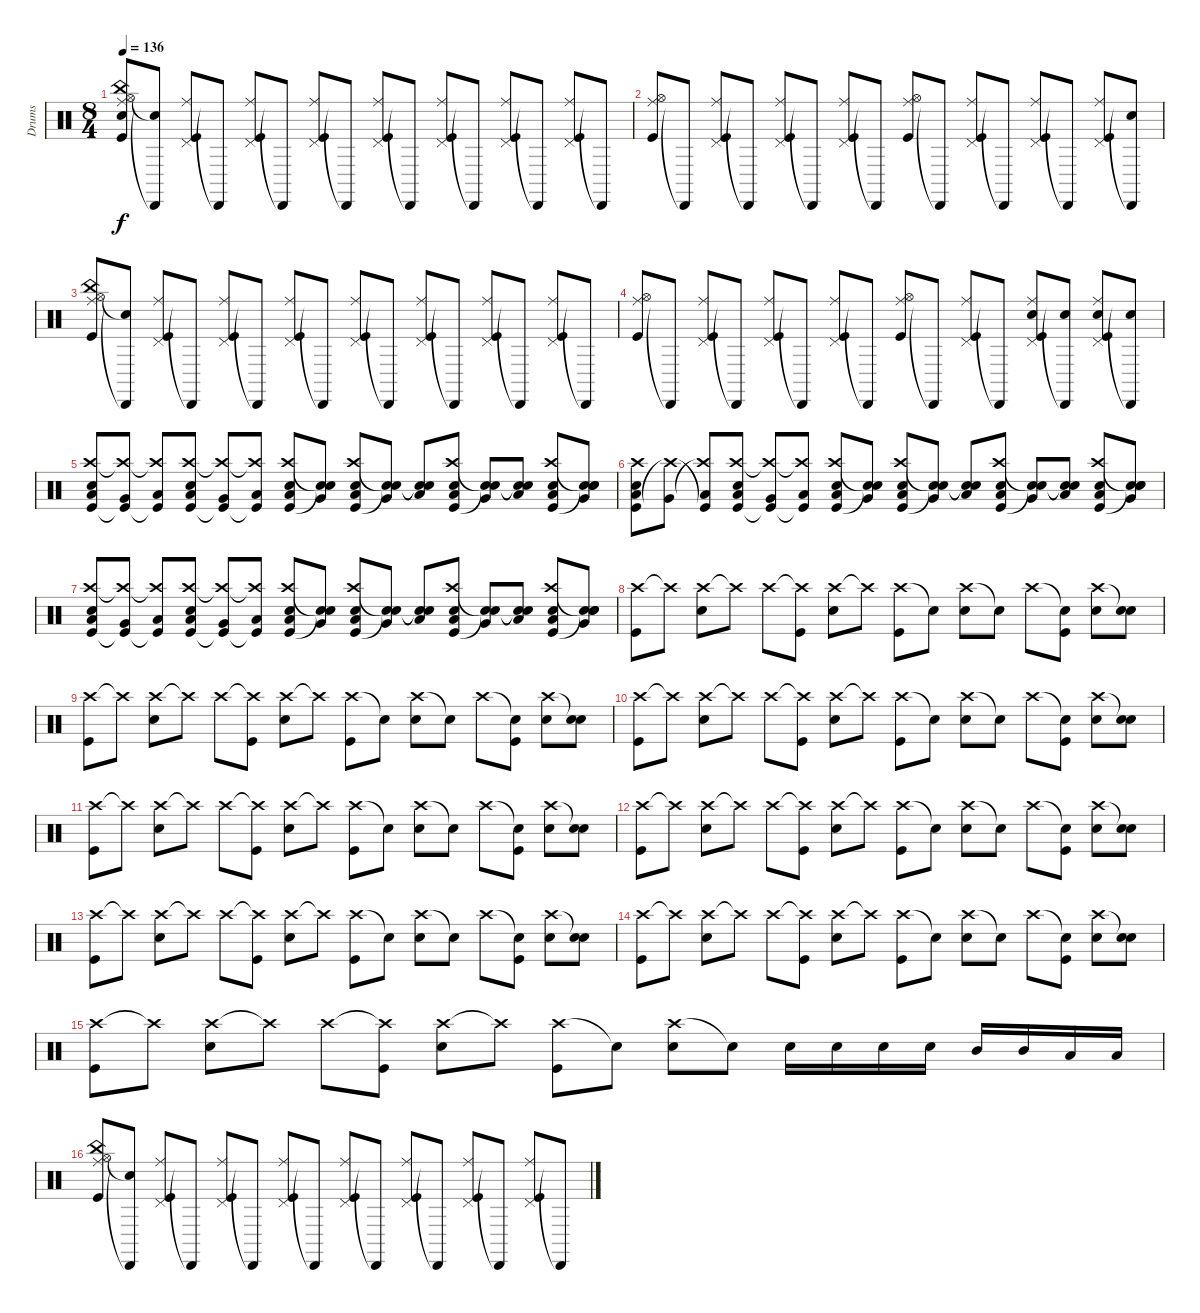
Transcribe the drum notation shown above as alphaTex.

\track ("Drums" "Drums") {instrument percussion}
\staff {score}
\articulation defaults
\ts (8 4)
\tempo 136
\clef neutral
\ks c
("China (hit)" "Ride (middle)" "Hi-Hat (open)" "Kick (hit)" "Snare (hit) 2").8{dy f} ("Snare (hit)"{t} "Cabasa (hit)"{t}).8 ("Ride (middle)" "Pedal Hi-Hat (hit)" "Kick (hit)").8 "Cabasa (hit)"{t}.8 ("Ride (middle)" "Pedal Hi-Hat (hit)" "Kick (hit)").8 "Cabasa (hit)"{t}.8 ("Ride (middle)" "Pedal Hi-Hat (hit)" "Kick (hit)").8 "Cabasa (hit)"{t}.8 ("Ride (middle)" "Pedal Hi-Hat (hit)" "Kick (hit)").8 "Cabasa (hit)"{t}.8 ("Ride (middle)" "Pedal Hi-Hat (hit)" "Kick (hit)").8 "Cabasa (hit)"{t}.8 ("Ride (middle)" "Pedal Hi-Hat (hit)" "Kick (hit)").8 "Cabasa (hit)"{t}.8 ("Ride (middle)" "Pedal Hi-Hat (hit)" "Kick (hit)").8 "Cabasa (hit)"{t}.8 |
("Ride (middle)" "Hi-Hat (open)" "Kick (hit)").8 "Cabasa (hit)"{t}.8 ("Ride (middle)" "Pedal Hi-Hat (hit)" "Kick (hit)").8 "Cabasa (hit)"{t}.8 ("Ride (middle)" "Pedal Hi-Hat (hit)" "Kick (hit)").8 "Cabasa (hit)"{t}.8 ("Ride (middle)" "Pedal Hi-Hat (hit)" "Kick (hit)").8 "Cabasa (hit)"{t}.8 ("Ride (middle)" "Hi-Hat (open)" "Kick (hit)").8 "Cabasa (hit)"{t}.8 ("Ride (middle)" "Pedal Hi-Hat (hit)" "Kick (hit)").8 "Cabasa (hit)"{t}.8 ("Ride (middle)" "Pedal Hi-Hat (hit)" "Kick (hit)").8 "Cabasa (hit)"{t}.8 ("Ride (middle)" "Pedal Hi-Hat (hit)" "Kick (hit)").8 ("Cabasa (hit)"{t} "Snare (hit) 2").8 |
("China (hit)" "Ride (middle)" "Hi-Hat (open)" "Kick (hit)").8 ("Snare (hit)"{t} "Cabasa (hit)"{t}).8 ("Ride (middle)" "Pedal Hi-Hat (hit)" "Kick (hit)").8 "Cabasa (hit)"{t}.8 ("Ride (middle)" "Pedal Hi-Hat (hit)" "Kick (hit)").8 "Cabasa (hit)"{t}.8 ("Ride (middle)" "Pedal Hi-Hat (hit)" "Kick (hit)").8 "Cabasa (hit)"{t}.8 ("Ride (middle)" "Pedal Hi-Hat (hit)" "Kick (hit)").8 "Cabasa (hit)"{t}.8 ("Ride (middle)" "Pedal Hi-Hat (hit)" "Kick (hit)").8 "Cabasa (hit)"{t}.8 ("Ride (middle)" "Pedal Hi-Hat (hit)" "Kick (hit)").8 "Cabasa (hit)"{t}.8 ("Ride (middle)" "Pedal Hi-Hat (hit)" "Kick (hit)").8 "Cabasa (hit)"{t}.8 |
("Ride (middle)" "Hi-Hat (open)" "Kick (hit)").8 "Cabasa (hit)"{t}.8 ("Ride (middle)" "Pedal Hi-Hat (hit)" "Kick (hit)").8 "Cabasa (hit)"{t}.8 ("Ride (middle)" "Pedal Hi-Hat (hit)" "Kick (hit)").8 "Cabasa (hit)"{t}.8 ("Ride (middle)" "Pedal Hi-Hat (hit)" "Kick (hit)").8 "Cabasa (hit)"{t}.8 ("Ride (middle)" "Hi-Hat (open)" "Kick (hit)").8 "Cabasa (hit)"{t}.8 ("Ride (middle)" "Pedal Hi-Hat (hit)" "Kick (hit)").8 "Cabasa (hit)"{t}.8 ("Ride (middle)" "Pedal Hi-Hat (hit)" "Kick (hit)" "Snare (hit) 2").8 ("Cabasa (hit)"{t} "Snare (hit) 2").8 ("Ride (middle)" "Pedal Hi-Hat (hit)" "Kick (hit)" "Snare (hit) 2").8 ("Cabasa (hit)"{t} "Snare (hit) 2").8 |
("Kick (hit)" "Crash high (hit)" "Low Tom (hit)" "Snare (hit) 2").8 ("Kick (hit)"{t} "Crash high (hit)"{t} "Very Low Tom (hit)").8 ("Kick (hit)"{t} "Crash high (hit)"{t} "Low Floor Tom (hit)").8 ("Kick (hit)" "Crash high (hit)" "Low Tom (hit)" "Snare (hit) 2").8 ("Kick (hit)"{t} "Crash high (hit)"{t} "Very Low Tom (hit)").8 ("Kick (hit)"{t} "Crash high (hit)"{t} "Low Floor Tom (hit)").8 ("Kick (hit)" "Crash high (hit)" "Low Tom (hit)" "Snare (hit) 2").8 ("Snare (hit)"{t} "Snare (hit)"{t} "Very Low Tom (hit)").8 ("Kick (hit)" "Crash high (hit)" "Low Tom (hit)" "Snare (hit) 2").8 ("Snare (hit)"{t} "Snare (hit)"{t} "Very Low Tom (hit)").8 ("Snare (hit)"{t} "Snare (hit)"{t} "Low Floor Tom (hit)").8 ("Kick (hit)" "Crash high (hit)" "Low Tom (hit)" "Snare (hit) 2").8 ("Snare (hit)"{t} "Snare (hit)"{t} "Very Low Tom (hit)").8 ("Snare (hit)"{t} "Snare (hit)"{t} "Low Floor Tom (hit)").8 ("Kick (hit)" "Crash high (hit)" "Low Tom (hit)" "Snare (hit) 2").8 ("Snare (hit)"{t} "Snare (hit)"{t} "Very Low Tom (hit)" "Snare (hit) 2").8 |
("Kick (hit)" "Crash high (hit)" "Low Tom (hit)" "Snare (hit) 2").8 ("Crash high (hit)"{t} "Very Low Tom (hit)").8 ("Kick (hit)"{t} "Crash high (hit)"{t} "Low Floor Tom (hit)").8 ("Kick (hit)" "Crash high (hit)" "Low Tom (hit)" "Snare (hit) 2").8 ("Kick (hit)"{t} "Crash high (hit)"{t} "Very Low Tom (hit)").8 ("Kick (hit)"{t} "Crash high (hit)"{t} "Low Floor Tom (hit)").8 ("Kick (hit)" "Crash high (hit)" "Low Tom (hit)" "Snare (hit) 2").8 ("Snare (hit)"{t} "Snare (hit)"{t} "Very Low Tom (hit)").8 ("Kick (hit)" "Crash high (hit)" "Low Tom (hit)" "Snare (hit) 2").8 ("Snare (hit)"{t} "Snare (hit)"{t} "Very Low Tom (hit)").8 ("Snare (hit)"{t} "Snare (hit)"{t} "Low Floor Tom (hit)").8 ("Kick (hit)" "Crash high (hit)" "Low Tom (hit)" "Snare (hit) 2").8 ("Snare (hit)"{t} "Snare (hit)"{t} "Very Low Tom (hit)").8 ("Snare (hit)"{t} "Snare (hit)"{t} "Low Floor Tom (hit)").8 ("Kick (hit)" "Crash high (hit)" "Low Tom (hit)" "Snare (hit) 2").8 ("Snare (hit)"{t} "Snare (hit)"{t} "Very Low Tom (hit)" "Snare (hit) 2").8 |
("Kick (hit)" "Crash high (hit)" "Low Tom (hit)" "Snare (hit) 2").8 ("Kick (hit)"{t} "Crash high (hit)"{t} "Very Low Tom (hit)").8 ("Kick (hit)"{t} "Crash high (hit)"{t} "Low Floor Tom (hit)").8 ("Kick (hit)" "Crash high (hit)" "Low Tom (hit)" "Snare (hit) 2").8 ("Kick (hit)"{t} "Crash high (hit)"{t} "Very Low Tom (hit)").8 ("Kick (hit)"{t} "Crash high (hit)"{t} "Low Floor Tom (hit)").8 ("Kick (hit)" "Crash high (hit)" "Low Tom (hit)" "Snare (hit) 2").8 ("Snare (hit)"{t} "Snare (hit)"{t} "Very Low Tom (hit)").8 ("Kick (hit)" "Crash high (hit)" "Low Tom (hit)" "Snare (hit) 2").8 ("Snare (hit)"{t} "Snare (hit)"{t} "Very Low Tom (hit)").8 ("Snare (hit)"{t} "Snare (hit)"{t} "Low Floor Tom (hit)").8 ("Kick (hit)" "Crash high (hit)" "Low Tom (hit)" "Snare (hit) 2").8 ("Snare (hit)"{t} "Snare (hit)"{t} "Very Low Tom (hit)").8 ("Snare (hit)"{t} "Snare (hit)"{t} "Low Floor Tom (hit)").8 ("Kick (hit)" "Crash high (hit)" "Low Tom (hit)" "Snare (hit) 2").8 ("Snare (hit)"{t} "Snare (hit)"{t} "Very Low Tom (hit)" "Snare (hit) 2").8 |
("Crash high (hit)" "Kick (hit)").8 "Crash high (hit)"{t}.8 ("Crash high (hit)" "Snare (hit) 2").8 "Crash high (hit)"{t}.8 "Crash high (hit)".8 ("Crash high (hit)"{t} "Kick (hit)").8 ("Crash high (hit)" "Snare (hit) 2").8 "Crash high (hit)"{t}.8 ("Crash high (hit)" "Kick (hit)").8 "Snare (hit)"{t}.8 ("Crash high (hit)" "Snare (hit) 2").8 "Snare (hit)"{t}.8 "Crash high (hit)".8 ("Snare (hit)"{t} "Kick (hit)").8 ("Crash high (hit)" "Snare (hit) 2").8 ("Snare (hit)"{t} "Snare (hit) 2").8 |
("Crash high (hit)" "Kick (hit)").8 "Crash high (hit)"{t}.8 ("Crash high (hit)" "Snare (hit) 2").8 "Crash high (hit)"{t}.8 "Crash high (hit)".8 ("Crash high (hit)"{t} "Kick (hit)").8 ("Crash high (hit)" "Snare (hit) 2").8 "Crash high (hit)"{t}.8 ("Crash high (hit)" "Kick (hit)").8 "Snare (hit)"{t}.8 ("Crash high (hit)" "Snare (hit) 2").8 "Snare (hit)"{t}.8 "Crash high (hit)".8 ("Snare (hit)"{t} "Kick (hit)").8 ("Crash high (hit)" "Snare (hit) 2").8 ("Snare (hit)"{t} "Snare (hit) 2").8 |
("Crash high (hit)" "Kick (hit)").8 "Crash high (hit)"{t}.8 ("Crash high (hit)" "Snare (hit) 2").8 "Crash high (hit)"{t}.8 "Crash high (hit)".8 ("Crash high (hit)"{t} "Kick (hit)").8 ("Crash high (hit)" "Snare (hit) 2").8 "Crash high (hit)"{t}.8 ("Crash high (hit)" "Kick (hit)").8 "Snare (hit)"{t}.8 ("Crash high (hit)" "Snare (hit) 2").8 "Snare (hit)"{t}.8 "Crash high (hit)".8 ("Snare (hit)"{t} "Kick (hit)").8 ("Crash high (hit)" "Snare (hit) 2").8 ("Snare (hit)"{t} "Snare (hit) 2").8 |
("Crash high (hit)" "Kick (hit)").8 "Crash high (hit)"{t}.8 ("Crash high (hit)" "Snare (hit) 2").8 "Crash high (hit)"{t}.8 "Crash high (hit)".8 ("Crash high (hit)"{t} "Kick (hit)").8 ("Crash high (hit)" "Snare (hit) 2").8 "Crash high (hit)"{t}.8 ("Crash high (hit)" "Kick (hit)").8 "Snare (hit)"{t}.8 ("Crash high (hit)" "Snare (hit) 2").8 "Snare (hit)"{t}.8 "Crash high (hit)".8 ("Snare (hit)"{t} "Kick (hit)").8 ("Crash high (hit)" "Snare (hit) 2").8 ("Snare (hit)"{t} "Snare (hit) 2").8 |
("Crash high (hit)" "Kick (hit)").8 "Crash high (hit)"{t}.8 ("Crash high (hit)" "Snare (hit) 2").8 "Crash high (hit)"{t}.8 "Crash high (hit)".8 ("Crash high (hit)"{t} "Kick (hit)").8 ("Crash high (hit)" "Snare (hit) 2").8 "Crash high (hit)"{t}.8 ("Crash high (hit)" "Kick (hit)").8 "Snare (hit)"{t}.8 ("Crash high (hit)" "Snare (hit) 2").8 "Snare (hit)"{t}.8 "Crash high (hit)".8 ("Snare (hit)"{t} "Kick (hit)").8 ("Crash high (hit)" "Snare (hit) 2").8 ("Snare (hit)"{t} "Snare (hit) 2").8 |
("Crash high (hit)" "Kick (hit)").8 "Crash high (hit)"{t}.8 ("Crash high (hit)" "Snare (hit) 2").8 "Crash high (hit)"{t}.8 "Crash high (hit)".8 ("Crash high (hit)"{t} "Kick (hit)").8 ("Crash high (hit)" "Snare (hit) 2").8 "Crash high (hit)"{t}.8 ("Crash high (hit)" "Kick (hit)").8 "Snare (hit)"{t}.8 ("Crash high (hit)" "Snare (hit) 2").8 "Snare (hit)"{t}.8 "Crash high (hit)".8 ("Snare (hit)"{t} "Kick (hit)").8 ("Crash high (hit)" "Snare (hit) 2").8 ("Snare (hit)"{t} "Snare (hit) 2").8 |
("Crash high (hit)" "Kick (hit)").8 "Crash high (hit)"{t}.8 ("Crash high (hit)" "Snare (hit) 2").8 "Crash high (hit)"{t}.8 "Crash high (hit)".8 ("Crash high (hit)"{t} "Kick (hit)").8 ("Crash high (hit)" "Snare (hit) 2").8 "Crash high (hit)"{t}.8 ("Crash high (hit)" "Kick (hit)").8 "Snare (hit)"{t}.8 ("Crash high (hit)" "Snare (hit) 2").8 "Snare (hit)"{t}.8 "Crash high (hit)".8 ("Snare (hit)"{t} "Kick (hit)").8 ("Crash high (hit)" "Snare (hit) 2").8 ("Snare (hit)"{t} "Snare (hit) 2").8 |
("Crash high (hit)" "Kick (hit)").8 "Crash high (hit)"{t}.8 ("Crash high (hit)" "Snare (hit) 2").8 "Crash high (hit)"{t}.8 "Crash high (hit)".8 ("Crash high (hit)"{t} "Kick (hit)").8 ("Crash high (hit)" "Snare (hit) 2").8 "Crash high (hit)"{t}.8 ("Crash high (hit)" "Kick (hit)").8 "Snare (hit)"{t}.8 ("Crash high (hit)" "Snare (hit) 2").8 "Snare (hit)"{t}.8 "Snare (hit) 2".16 "Snare (hit) 2".16 "Snare (hit) 2".16 "Snare (hit) 2".16 "Mid Tom (hit)".16 "Mid Tom (hit)".16 "Low Tom (hit)".16 "Low Floor Tom (hit)".16 |
("China (hit)" "Ride (middle)" "Hi-Hat (open)" "Kick (hit)").8 ("Snare (hit)"{t} "Cabasa (hit)"{t}).8 ("Ride (middle)" "Pedal Hi-Hat (hit)" "Kick (hit)").8 "Cabasa (hit)"{t}.8 ("Ride (middle)" "Pedal Hi-Hat (hit)" "Kick (hit)").8 "Cabasa (hit)"{t}.8 ("Ride (middle)" "Pedal Hi-Hat (hit)" "Kick (hit)").8 "Cabasa (hit)"{t}.8 ("Ride (middle)" "Pedal Hi-Hat (hit)" "Kick (hit)").8 "Cabasa (hit)"{t}.8 ("Ride (middle)" "Pedal Hi-Hat (hit)" "Kick (hit)").8 "Cabasa (hit)"{t}.8 ("Ride (middle)" "Pedal Hi-Hat (hit)" "Kick (hit)").8 "Cabasa (hit)"{t}.8 ("Ride (middle)" "Pedal Hi-Hat (hit)" "Kick (hit)").8 "Cabasa (hit)"{t}.8
